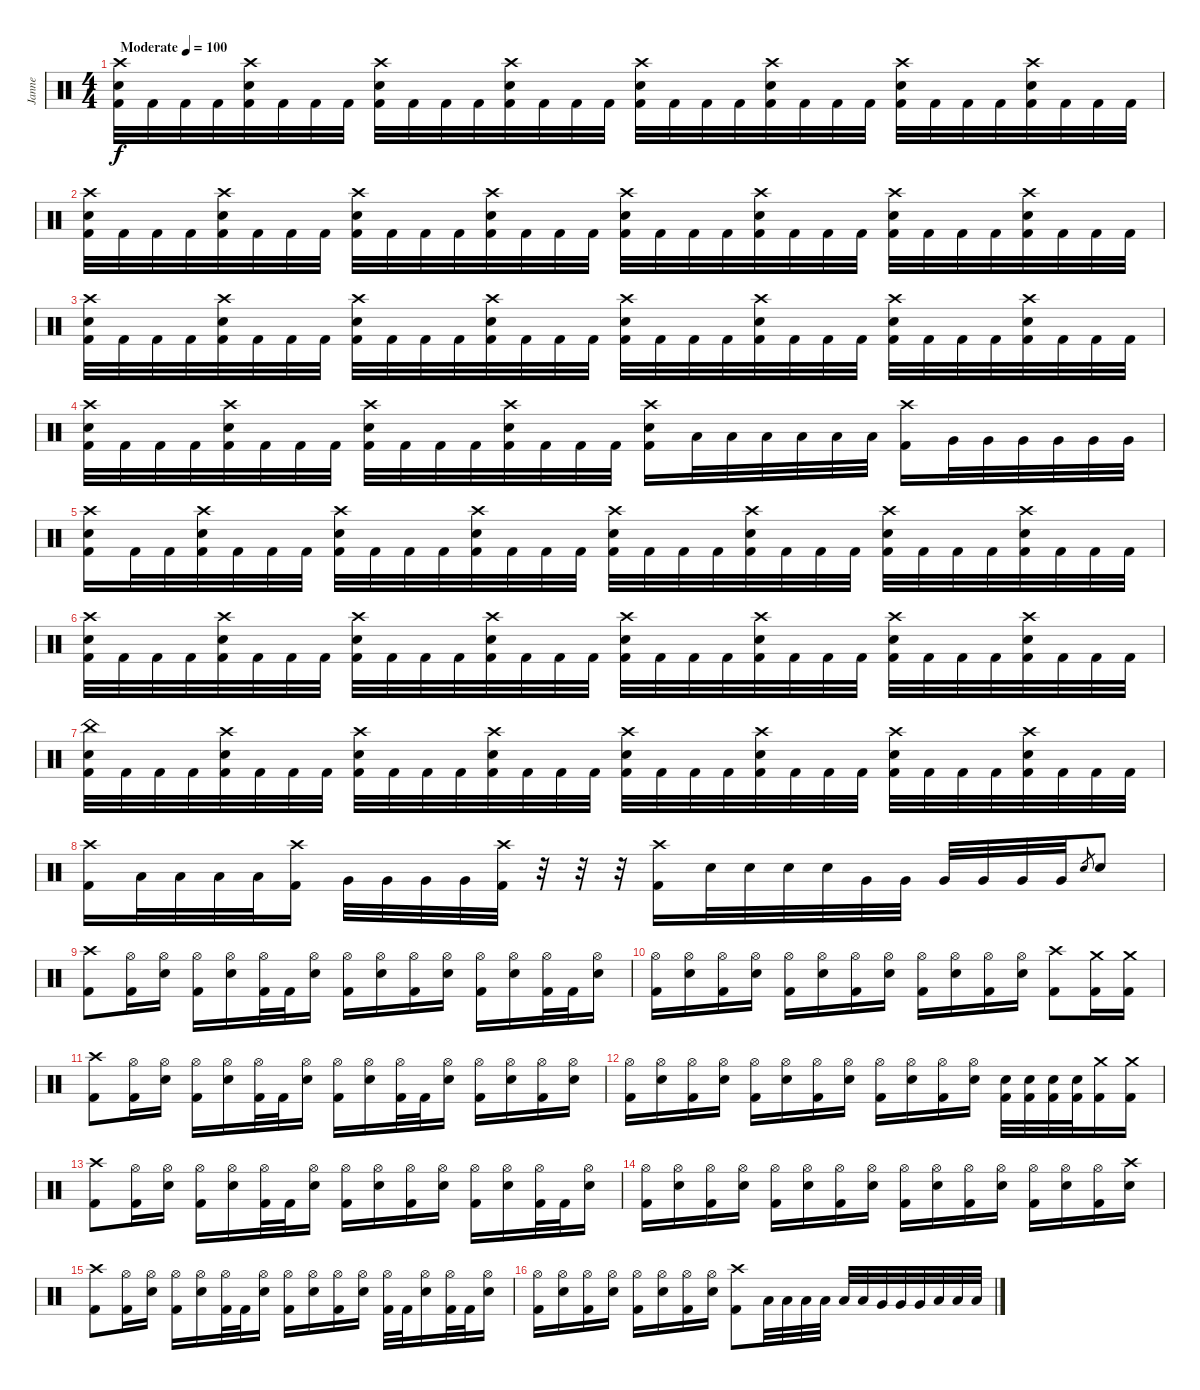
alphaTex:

\track ("Janne" "Janne") {instrument percussion}
\staff {score}
\articulation defaults
\ts (4 4)
\tempo (100 "Moderate")
\clef neutral
\ks c
("Crash high (hit)" "Electric Snare (hit)" "Kick (hit) 2").32{dy f} "Kick (hit) 2".32 "Kick (hit) 2".32 "Kick (hit) 2".32 ("Crash high (hit)" "Electric Snare (hit)" "Kick (hit) 2").32 "Kick (hit) 2".32 "Kick (hit) 2".32 "Kick (hit) 2".32 ("Crash high (hit)" "Electric Snare (hit)" "Kick (hit) 2").32 "Kick (hit) 2".32 "Kick (hit) 2".32 "Kick (hit) 2".32 ("Crash high (hit)" "Electric Snare (hit)" "Kick (hit) 2").32 "Kick (hit) 2".32 "Kick (hit) 2".32 "Kick (hit) 2".32 ("Crash high (hit)" "Electric Snare (hit)" "Kick (hit) 2").32 "Kick (hit) 2".32 "Kick (hit) 2".32 "Kick (hit) 2".32 ("Crash high (hit)" "Electric Snare (hit)" "Kick (hit) 2").32 "Kick (hit) 2".32 "Kick (hit) 2".32 "Kick (hit) 2".32 ("Crash high (hit)" "Electric Snare (hit)" "Kick (hit) 2").32 "Kick (hit) 2".32 "Kick (hit) 2".32 "Kick (hit) 2".32 ("Crash high (hit)" "Electric Snare (hit)" "Kick (hit) 2").32 "Kick (hit) 2".32 "Kick (hit) 2".32 "Kick (hit) 2".32 |
("Crash high (hit)" "Electric Snare (hit)" "Kick (hit) 2").32 "Kick (hit) 2".32 "Kick (hit) 2".32 "Kick (hit) 2".32 ("Crash high (hit)" "Electric Snare (hit)" "Kick (hit) 2").32 "Kick (hit) 2".32 "Kick (hit) 2".32 "Kick (hit) 2".32 ("Crash high (hit)" "Electric Snare (hit)" "Kick (hit) 2").32 "Kick (hit) 2".32 "Kick (hit) 2".32 "Kick (hit) 2".32 ("Crash high (hit)" "Electric Snare (hit)" "Kick (hit) 2").32 "Kick (hit) 2".32 "Kick (hit) 2".32 "Kick (hit) 2".32 ("Crash high (hit)" "Electric Snare (hit)" "Kick (hit) 2").32 "Kick (hit) 2".32 "Kick (hit) 2".32 "Kick (hit) 2".32 ("Crash high (hit)" "Electric Snare (hit)" "Kick (hit) 2").32 "Kick (hit) 2".32 "Kick (hit) 2".32 "Kick (hit) 2".32 ("Crash high (hit)" "Electric Snare (hit)" "Kick (hit) 2").32 "Kick (hit) 2".32 "Kick (hit) 2".32 "Kick (hit) 2".32 ("Crash high (hit)" "Electric Snare (hit)" "Kick (hit) 2").32 "Kick (hit) 2".32 "Kick (hit) 2".32 "Kick (hit) 2".32 |
("Crash high (hit)" "Electric Snare (hit)" "Kick (hit) 2").32 "Kick (hit) 2".32 "Kick (hit) 2".32 "Kick (hit) 2".32 ("Crash high (hit)" "Electric Snare (hit)" "Kick (hit) 2").32 "Kick (hit) 2".32 "Kick (hit) 2".32 "Kick (hit) 2".32 ("Crash high (hit)" "Electric Snare (hit)" "Kick (hit) 2").32 "Kick (hit) 2".32 "Kick (hit) 2".32 "Kick (hit) 2".32 ("Crash high (hit)" "Electric Snare (hit)" "Kick (hit) 2").32 "Kick (hit) 2".32 "Kick (hit) 2".32 "Kick (hit) 2".32 ("Crash high (hit)" "Electric Snare (hit)" "Kick (hit) 2").32 "Kick (hit) 2".32 "Kick (hit) 2".32 "Kick (hit) 2".32 ("Crash high (hit)" "Electric Snare (hit)" "Kick (hit) 2").32 "Kick (hit) 2".32 "Kick (hit) 2".32 "Kick (hit) 2".32 ("Crash high (hit)" "Electric Snare (hit)" "Kick (hit) 2").32 "Kick (hit) 2".32 "Kick (hit) 2".32 "Kick (hit) 2".32 ("Crash high (hit)" "Electric Snare (hit)" "Kick (hit) 2").32 "Kick (hit) 2".32 "Kick (hit) 2".32 "Kick (hit) 2".32 |
("Crash high (hit)" "Electric Snare (hit)" "Kick (hit) 2").32 "Kick (hit) 2".32 "Kick (hit) 2".32 "Kick (hit) 2".32 ("Crash high (hit)" "Electric Snare (hit)" "Kick (hit) 2").32 "Kick (hit) 2".32 "Kick (hit) 2".32 "Kick (hit) 2".32 ("Crash high (hit)" "Electric Snare (hit)" "Kick (hit) 2").32 "Kick (hit) 2".32 "Kick (hit) 2".32 "Kick (hit) 2".32 ("Crash high (hit)" "Electric Snare (hit)" "Kick (hit) 2").32 "Kick (hit) 2".32 "Kick (hit) 2".32 "Kick (hit) 2".32 ("Crash high (hit)" "Electric Snare (hit)" "Kick (hit) 2").16 "Low Tom (hit)".32 "Low Tom (hit)".32 "Low Tom (hit)".32 "Low Tom (hit)".32 "Low Tom (hit)".32 "Low Tom (hit)".32 ("Crash high (hit)" "Kick (hit) 2").16 "Very Low Tom (hit)".32 "Very Low Tom (hit)".32 "Very Low Tom (hit)".32 "Very Low Tom (hit)".32 "Very Low Tom (hit)".32 "Very Low Tom (hit)".32 |
("Crash high (hit)" "Electric Snare (hit)" "Kick (hit) 2").16 "Kick (hit) 2".32 "Kick (hit) 2".32 ("Crash high (hit)" "Electric Snare (hit)" "Kick (hit) 2").32 "Kick (hit) 2".32 "Kick (hit) 2".32 "Kick (hit) 2".32 ("Crash high (hit)" "Electric Snare (hit)" "Kick (hit) 2").32 "Kick (hit) 2".32 "Kick (hit) 2".32 "Kick (hit) 2".32 ("Crash high (hit)" "Electric Snare (hit)" "Kick (hit) 2").32 "Kick (hit) 2".32 "Kick (hit) 2".32 "Kick (hit) 2".32 ("Crash high (hit)" "Electric Snare (hit)" "Kick (hit) 2").32 "Kick (hit) 2".32 "Kick (hit) 2".32 "Kick (hit) 2".32 ("Crash high (hit)" "Electric Snare (hit)" "Kick (hit) 2").32 "Kick (hit) 2".32 "Kick (hit) 2".32 "Kick (hit) 2".32 ("Crash high (hit)" "Electric Snare (hit)" "Kick (hit) 2").32 "Kick (hit) 2".32 "Kick (hit) 2".32 "Kick (hit) 2".32 ("Crash high (hit)" "Electric Snare (hit)" "Kick (hit) 2").32 "Kick (hit) 2".32 "Kick (hit) 2".32 "Kick (hit) 2".32 |
("Crash high (hit)" "Electric Snare (hit)" "Kick (hit) 2").32 "Kick (hit) 2".32 "Kick (hit) 2".32 "Kick (hit) 2".32 ("Crash high (hit)" "Electric Snare (hit)" "Kick (hit) 2").32 "Kick (hit) 2".32 "Kick (hit) 2".32 "Kick (hit) 2".32 ("Crash high (hit)" "Electric Snare (hit)" "Kick (hit) 2").32 "Kick (hit) 2".32 "Kick (hit) 2".32 "Kick (hit) 2".32 ("Crash high (hit)" "Electric Snare (hit)" "Kick (hit) 2").32 "Kick (hit) 2".32 "Kick (hit) 2".32 "Kick (hit) 2".32 ("Crash high (hit)" "Electric Snare (hit)" "Kick (hit) 2").32 "Kick (hit) 2".32 "Kick (hit) 2".32 "Kick (hit) 2".32 ("Crash high (hit)" "Electric Snare (hit)" "Kick (hit) 2").32 "Kick (hit) 2".32 "Kick (hit) 2".32 "Kick (hit) 2".32 ("Crash high (hit)" "Electric Snare (hit)" "Kick (hit) 2").32 "Kick (hit) 2".32 "Kick (hit) 2".32 "Kick (hit) 2".32 ("Crash high (hit)" "Electric Snare (hit)" "Kick (hit) 2").32 "Kick (hit) 2".32 "Kick (hit) 2".32 "Kick (hit) 2".32 |
("China (hit)" "Electric Snare (hit)" "Kick (hit) 2").32 "Kick (hit) 2".32 "Kick (hit) 2".32 "Kick (hit) 2".32 ("Crash high (hit)" "Electric Snare (hit)" "Kick (hit) 2").32 "Kick (hit) 2".32 "Kick (hit) 2".32 "Kick (hit) 2".32 ("Crash high (hit)" "Electric Snare (hit)" "Kick (hit) 2").32 "Kick (hit) 2".32 "Kick (hit) 2".32 "Kick (hit) 2".32 ("Crash high (hit)" "Electric Snare (hit)" "Kick (hit) 2").32 "Kick (hit) 2".32 "Kick (hit) 2".32 "Kick (hit) 2".32 ("Crash high (hit)" "Electric Snare (hit)" "Kick (hit) 2").32 "Kick (hit) 2".32 "Kick (hit) 2".32 "Kick (hit) 2".32 ("Crash high (hit)" "Electric Snare (hit)" "Kick (hit) 2").32 "Kick (hit) 2".32 "Kick (hit) 2".32 "Kick (hit) 2".32 ("Crash high (hit)" "Electric Snare (hit)" "Kick (hit) 2").32 "Kick (hit) 2".32 "Kick (hit) 2".32 "Kick (hit) 2".32 ("Crash high (hit)" "Electric Snare (hit)" "Kick (hit) 2").32 "Kick (hit) 2".32 "Kick (hit) 2".32 "Kick (hit) 2".32 |
("Crash high (hit)" "Kick (hit) 2").16 "Low Tom (hit)".32 "Low Tom (hit)".32 "Low Tom (hit)".32 "Low Tom (hit)".32 ("Crash high (hit)" "Kick (hit) 2").16 "Very Low Tom (hit)".32 "Very Low Tom (hit)".32 "Very Low Tom (hit)".32 "Very Low Tom (hit)".32 ("Crash high (hit)" "Kick (hit) 2").32 r.32 r.32 r.32 ("Crash high (hit)" "Kick (hit) 2").16 "Electric Snare (hit)".32 "Electric Snare (hit)".32 "Electric Snare (hit)".32 "Electric Snare (hit)".32 "Very Low Tom (hit)".32 "Very Low Tom (hit)".32 "Very Low Tom (hit)".32 "Very Low Tom (hit)".32 "Very Low Tom (hit)".32 "Very Low Tom (hit)".32 "Electric Snare (hit)".8{gr} "Electric Snare (hit)".8 |
("Crash high (hit)" "Kick (hit) 2").8 ("Hi-Hat (open)" "Kick (hit) 2").16 ("Hi-Hat (open)" "Electric Snare (hit)").16 ("Hi-Hat (open)" "Kick (hit) 2").16 ("Hi-Hat (open)" "Electric Snare (hit)").16 ("Hi-Hat (open)" "Kick (hit) 2").32 "Kick (hit) 2".32 ("Hi-Hat (open)" "Electric Snare (hit)").16 ("Hi-Hat (open)" "Kick (hit) 2").16 ("Hi-Hat (open)" "Electric Snare (hit)").16 ("Hi-Hat (open)" "Kick (hit) 2").16 ("Hi-Hat (open)" "Electric Snare (hit)").16 ("Hi-Hat (open)" "Kick (hit) 2").16 ("Hi-Hat (open)" "Electric Snare (hit)").16 ("Hi-Hat (open)" "Kick (hit) 2").32 "Kick (hit) 2".32 ("Hi-Hat (open)" "Electric Snare (hit)").16 |
("Hi-Hat (open)" "Kick (hit) 2").16 ("Hi-Hat (open)" "Electric Snare (hit)").16 ("Hi-Hat (open)" "Kick (hit) 2").16 ("Hi-Hat (open)" "Electric Snare (hit)").16 ("Hi-Hat (open)" "Kick (hit) 2").16 ("Hi-Hat (open)" "Electric Snare (hit)").16 ("Hi-Hat (open)" "Kick (hit) 2").16 ("Hi-Hat (open)" "Electric Snare (hit)").16 ("Hi-Hat (open)" "Kick (hit) 2").16 ("Hi-Hat (open)" "Electric Snare (hit)").16 ("Hi-Hat (open)" "Kick (hit) 2").16 ("Hi-Hat (open)" "Electric Snare (hit)").16 ("Crash high (hit)" "Kick (hit) 2").8 ("Crash medium (hit)" "Kick (hit) 2").16 ("Crash medium (hit)" "Kick (hit) 2").16 |
("Crash high (hit)" "Kick (hit) 2").8 ("Hi-Hat (open)" "Kick (hit) 2").16 ("Hi-Hat (open)" "Electric Snare (hit)").16 ("Hi-Hat (open)" "Kick (hit) 2").16 ("Hi-Hat (open)" "Electric Snare (hit)").16 ("Hi-Hat (open)" "Kick (hit) 2").32 "Kick (hit) 2".32 ("Hi-Hat (open)" "Electric Snare (hit)").16 ("Hi-Hat (open)" "Kick (hit) 2").16 ("Hi-Hat (open)" "Electric Snare (hit)").16 ("Hi-Hat (open)" "Kick (hit) 2").32 "Kick (hit) 2".32 ("Hi-Hat (open)" "Electric Snare (hit)").16 ("Hi-Hat (open)" "Kick (hit) 2").16 ("Hi-Hat (open)" "Electric Snare (hit)").16 ("Hi-Hat (open)" "Kick (hit) 2").16 ("Hi-Hat (open)" "Electric Snare (hit)").16 |
("Hi-Hat (open)" "Kick (hit) 2").16 ("Hi-Hat (open)" "Electric Snare (hit)").16 ("Hi-Hat (open)" "Kick (hit) 2").16 ("Hi-Hat (open)" "Electric Snare (hit)").16 ("Hi-Hat (open)" "Kick (hit) 2").16 ("Hi-Hat (open)" "Electric Snare (hit)").16 ("Hi-Hat (open)" "Kick (hit) 2").16 ("Hi-Hat (open)" "Electric Snare (hit)").16 ("Hi-Hat (open)" "Kick (hit) 2").16 ("Hi-Hat (open)" "Electric Snare (hit)").16 ("Hi-Hat (open)" "Kick (hit) 2").16 ("Hi-Hat (open)" "Electric Snare (hit)").16 ("Electric Snare (hit)" "Kick (hit) 2").32 ("Electric Snare (hit)" "Kick (hit) 2").32 ("Electric Snare (hit)" "Kick (hit) 2").32 ("Electric Snare (hit)" "Kick (hit) 2").32 ("Crash medium (hit)" "Kick (hit) 2").16 ("Crash medium (hit)" "Kick (hit) 2").16 |
("Crash high (hit)" "Kick (hit) 2").8 ("Hi-Hat (open)" "Kick (hit) 2").16 ("Hi-Hat (open)" "Electric Snare (hit)").16 ("Hi-Hat (open)" "Kick (hit) 2").16 ("Hi-Hat (open)" "Electric Snare (hit)").16 ("Hi-Hat (open)" "Kick (hit) 2").32 "Kick (hit) 2".32 ("Hi-Hat (open)" "Electric Snare (hit)").16 ("Hi-Hat (open)" "Kick (hit) 2").16 ("Hi-Hat (open)" "Electric Snare (hit)").16 ("Hi-Hat (open)" "Kick (hit) 2").16 ("Hi-Hat (open)" "Electric Snare (hit)").16 ("Hi-Hat (open)" "Kick (hit) 2").16 ("Hi-Hat (open)" "Electric Snare (hit)").16 ("Hi-Hat (open)" "Kick (hit) 2").32 "Kick (hit) 2".32 ("Hi-Hat (open)" "Electric Snare (hit)").16 |
("Hi-Hat (open)" "Kick (hit) 2").16 ("Hi-Hat (open)" "Electric Snare (hit)").16 ("Hi-Hat (open)" "Kick (hit) 2").16 ("Hi-Hat (open)" "Electric Snare (hit)").16 ("Hi-Hat (open)" "Kick (hit) 2").16 ("Hi-Hat (open)" "Electric Snare (hit)").16 ("Hi-Hat (open)" "Kick (hit) 2").16 ("Hi-Hat (open)" "Electric Snare (hit)").16 ("Hi-Hat (open)" "Kick (hit) 2").16 ("Hi-Hat (open)" "Electric Snare (hit)").16 ("Hi-Hat (open)" "Kick (hit) 2").16 ("Hi-Hat (open)" "Electric Snare (hit)").16 ("Hi-Hat (open)" "Kick (hit) 2").16 ("Hi-Hat (open)" "Electric Snare (hit)").16 ("Hi-Hat (open)" "Kick (hit) 2").16 ("Crash high (hit)" "Electric Snare (hit)").16 |
("Crash high (hit)" "Kick (hit) 2").8 ("Hi-Hat (open)" "Kick (hit) 2").16 ("Hi-Hat (open)" "Electric Snare (hit)").16 ("Hi-Hat (open)" "Kick (hit) 2").16 ("Hi-Hat (open)" "Electric Snare (hit)").16 ("Hi-Hat (open)" "Kick (hit) 2").32 "Kick (hit) 2".32 ("Hi-Hat (open)" "Electric Snare (hit)").16 ("Hi-Hat (open)" "Kick (hit) 2").16 ("Hi-Hat (open)" "Electric Snare (hit)").16 ("Hi-Hat (open)" "Kick (hit) 2").16 ("Hi-Hat (open)" "Electric Snare (hit)").16 ("Hi-Hat (open)" "Kick (hit) 2").32 "Kick (hit) 2".32 ("Hi-Hat (open)" "Electric Snare (hit)").16 ("Hi-Hat (open)" "Kick (hit) 2").32 "Kick (hit) 2".32 ("Hi-Hat (open)" "Electric Snare (hit)").16 |
("Hi-Hat (open)" "Kick (hit) 2").16 ("Hi-Hat (open)" "Electric Snare (hit)").16 ("Hi-Hat (open)" "Kick (hit) 2").16 ("Hi-Hat (open)" "Electric Snare (hit)").16 ("Hi-Hat (open)" "Kick (hit) 2").16 ("Hi-Hat (open)" "Electric Snare (hit)").16 ("Hi-Hat (open)" "Kick (hit) 2").16 ("Hi-Hat (open)" "Electric Snare (hit)").16 ("Crash high (hit)" "Kick (hit) 2").8 "Low Tom (hit)".32 "Low Tom (hit)".32 "Low Tom (hit)".32 "Low Tom (hit)".32 "Low Tom (hit)".32 "Low Tom (hit)".32 "Very Low Tom (hit)".32 "Very Low Tom (hit)".32 "Very Low Tom (hit)".32 "Low Floor Tom (hit)".32 "Low Floor Tom (hit)".32 "Low Floor Tom (hit)".32
